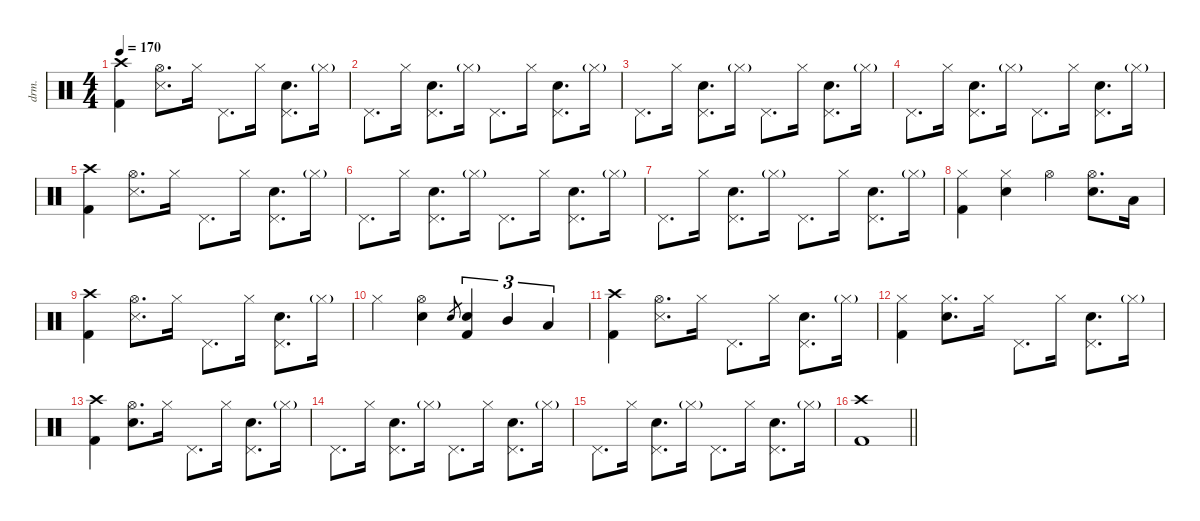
\defaultSystemsLayout 4
\hideDynamics
\useSystemSignSeparator
\otherSystemsTrackNameOrientation horizontal
\extendBarLines
\track ("Drums" "drm.") {instrument percussion}
\staff {score}
\articulation defaults
\ts (4 4)
\tempo 170
\clef neutral
\ks c
("Crash high (hit)" "Kick (hit) 2").4{dy f beam Down} ("Hi-Hat (open)" "Snare (side stick) 3").8{d beam Down} "Hi-Hat (closed)".16{beam Down} "Pedal Hi-Hat (hit)".8{d beam Down} "Hi-Hat (closed)".16{beam Down} ("Pedal Hi-Hat (hit)" "Snare (hit) 2").8{d beam Down} "Hi-Hat (closed)"{g}.16{dy mf beam Down} |
"Pedal Hi-Hat (hit)".8{d dy f beam Down} "Hi-Hat (closed)".16{beam Down} ("Pedal Hi-Hat (hit)" "Snare (hit) 2").8{d beam Down} "Hi-Hat (closed)"{g}.16{dy mf beam Down} "Pedal Hi-Hat (hit)".8{d dy f beam Down} "Hi-Hat (closed)".16{beam Down} ("Pedal Hi-Hat (hit)" "Snare (hit) 2").8{d beam Down} "Hi-Hat (closed)"{g}.16{dy mf beam Down} |
"Pedal Hi-Hat (hit)".8{d dy f beam Down} "Hi-Hat (closed)".16{beam Down} ("Pedal Hi-Hat (hit)" "Snare (hit) 2").8{d beam Down} "Hi-Hat (closed)"{g}.16{dy mf beam Down} "Pedal Hi-Hat (hit)".8{d dy f beam Down} "Hi-Hat (closed)".16{beam Down} ("Pedal Hi-Hat (hit)" "Snare (hit) 2").8{d beam Down} "Hi-Hat (closed)"{g}.16{dy mf beam Down} |
"Pedal Hi-Hat (hit)".8{d dy f beam Down} "Hi-Hat (closed)".16{beam Down} ("Pedal Hi-Hat (hit)" "Snare (hit) 2").8{d beam Down} "Hi-Hat (closed)"{g}.16{dy mf beam Down} "Pedal Hi-Hat (hit)".8{d dy f beam Down} "Hi-Hat (closed)".16{beam Down} ("Pedal Hi-Hat (hit)" "Snare (hit) 2").8{d beam Down} "Hi-Hat (closed)"{g}.16{dy mf beam Down} |
("Crash high (hit)" "Kick (hit) 2").4{dy f beam Down} ("Hi-Hat (open)" "Snare (side stick) 3").8{d beam Down} "Hi-Hat (closed)".16{beam Down} "Pedal Hi-Hat (hit)".8{d beam Down} "Hi-Hat (closed)".16{beam Down} ("Pedal Hi-Hat (hit)" "Snare (hit) 2").8{d beam Down} "Hi-Hat (closed)"{g}.16{dy mf beam Down} |
"Pedal Hi-Hat (hit)".8{d dy f beam Down} "Hi-Hat (closed)".16{beam Down} ("Pedal Hi-Hat (hit)" "Snare (hit) 2").8{d beam Down} "Hi-Hat (closed)"{g}.16{dy mf beam Down} "Pedal Hi-Hat (hit)".8{d dy f beam Down} "Hi-Hat (closed)".16{beam Down} ("Pedal Hi-Hat (hit)" "Snare (hit) 2").8{d beam Down} "Hi-Hat (closed)"{g}.16{dy mf beam Down} |
"Pedal Hi-Hat (hit)".8{d dy f beam Down} "Hi-Hat (closed)".16{beam Down} ("Pedal Hi-Hat (hit)" "Snare (hit) 2").8{d beam Down} "Hi-Hat (closed)"{g}.16{dy mf beam Down} "Pedal Hi-Hat (hit)".8{d dy f beam Down} "Hi-Hat (closed)".16{beam Down} ("Pedal Hi-Hat (hit)" "Snare (hit) 2").8{d beam Down} "Hi-Hat (closed)"{g}.16{dy mf beam Down} |
("Hi-Hat (closed)" "Kick (hit) 2").4{dy f beam Down} ("Hi-Hat (closed)" "Snare (hit) 2").4{beam Down} "Hi-Hat (open)".4{beam Down} ("Hi-Hat (open)" "Snare (hit) 2").8{d beam Down} "Low Tom (hit)".16{beam Down} |
("Crash high (hit)" "Kick (hit) 2").4{beam Down} ("Hi-Hat (open)" "Snare (side stick) 3").8{d beam Down} "Hi-Hat (closed)".16{beam Down} "Pedal Hi-Hat (hit)".8{d beam Down} "Hi-Hat (closed)".16{beam Down} ("Pedal Hi-Hat (hit)" "Snare (hit) 2").8{d beam Down} "Hi-Hat (closed)"{g}.16{dy mf beam Down} |
"Hi-Hat (closed)".4{dy f beam Down} ("Hi-Hat (open)" "Snare (hit) 2").4{beam Down} "Snare (hit) 2".8{gr dy mf beam Up} ("Snare (hit) 2" "Kick (hit) 2").4{tu (3 2) dy f beam Up} "Mid Tom (hit)".4{tu (3 2) beam Up} "Low Tom (hit)".4{tu (3 2) beam Up} |
("Crash high (hit)" "Kick (hit) 2").4{beam Down} ("Hi-Hat (open)" "Snare (side stick) 3").8{d beam Down} "Hi-Hat (closed)".16{beam Down} "Pedal Hi-Hat (hit)".8{d beam Down} "Hi-Hat (closed)".16{beam Down} ("Pedal Hi-Hat (hit)" "Snare (hit) 2").8{d beam Down} "Hi-Hat (closed)"{g}.16{dy mf beam Down} |
("Hi-Hat (closed)" "Kick (hit) 2").4{dy f beam Down} ("Hi-Hat (closed)" "Snare (hit) 2").8{d beam Down} "Hi-Hat (closed)".16{beam Down} "Pedal Hi-Hat (hit)".8{d beam Down} "Hi-Hat (closed)".16{beam Down} ("Pedal Hi-Hat (hit)" "Snare (hit) 2").8{d beam Down} "Hi-Hat (closed)"{g}.16{dy mf beam Down} |
("Crash high (hit)" "Kick (hit) 2").4{dy f beam Down} ("Hi-Hat (open)" "Snare (hit) 2").8{d beam Down} "Hi-Hat (closed)".16{beam Down} "Pedal Hi-Hat (hit)".8{d beam Down} "Hi-Hat (closed)".16{beam Down} ("Pedal Hi-Hat (hit)" "Snare (hit) 2").8{d beam Down} "Hi-Hat (closed)"{g}.16{dy mf beam Down} |
"Pedal Hi-Hat (hit)".8{d dy f beam Down} "Hi-Hat (closed)".16{beam Down} ("Pedal Hi-Hat (hit)" "Snare (hit) 2").8{d beam Down} "Hi-Hat (closed)"{g}.16{dy mf beam Down} "Pedal Hi-Hat (hit)".8{d dy f beam Down} "Hi-Hat (closed)".16{beam Down} ("Pedal Hi-Hat (hit)" "Snare (hit) 2").8{d beam Down} "Hi-Hat (closed)"{g}.16{dy mf beam Down} |
"Pedal Hi-Hat (hit)".8{d dy f beam Down} "Hi-Hat (closed)".16{beam Down} ("Pedal Hi-Hat (hit)" "Snare (hit) 2").8{d beam Down} "Hi-Hat (closed)"{g}.16{dy mf beam Down} "Pedal Hi-Hat (hit)".8{d dy f beam Down} "Hi-Hat (closed)".16{beam Down} ("Pedal Hi-Hat (hit)" "Snare (hit) 2").8{d beam Down} "Hi-Hat (closed)"{g}.16{dy mf beam Down} |
\barLineRight lightlight
("Crash high (hit)" "Kick (hit) 2").1{beam Down}
